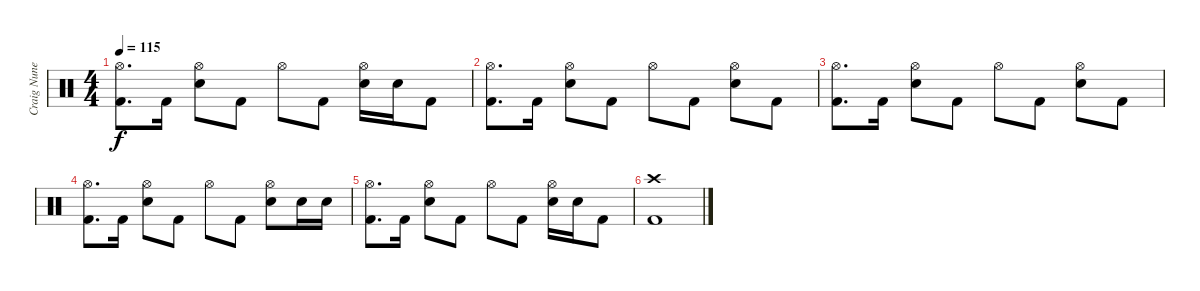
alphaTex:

\track ("Craig Nunenmacher" "Craig Nune") {instrument percussion}
\staff {score}
\articulation defaults
\ts (4 4)
\tempo 115
\clef neutral
\ks c
("Hi-Hat (open)" "Kick (hit) 2").8{d dy f} "Kick (hit) 2".16 ("Hi-Hat (open)" "Snare (hit) 2").8 "Kick (hit) 2".8 "Hi-Hat (open)".8 "Kick (hit) 2".8 ("Hi-Hat (open)" "Snare (hit) 2").16 "Snare (hit) 2".16 "Kick (hit) 2".8 |
("Hi-Hat (open)" "Kick (hit) 2").8{d} "Kick (hit) 2".16 ("Hi-Hat (open)" "Snare (hit) 2").8 "Kick (hit) 2".8 "Hi-Hat (open)".8 "Kick (hit) 2".8 ("Hi-Hat (open)" "Snare (hit) 2").8 "Kick (hit) 2".8 |
("Hi-Hat (open)" "Kick (hit) 2").8{d} "Kick (hit) 2".16 ("Hi-Hat (open)" "Snare (hit) 2").8 "Kick (hit) 2".8 "Hi-Hat (open)".8 "Kick (hit) 2".8 ("Hi-Hat (open)" "Snare (hit) 2").8 "Kick (hit) 2".8 |
("Hi-Hat (open)" "Kick (hit) 2").8{d} "Kick (hit) 2".16 ("Hi-Hat (open)" "Snare (hit) 2").8 "Kick (hit) 2".8 "Hi-Hat (open)".8 "Kick (hit) 2".8 ("Hi-Hat (open)" "Snare (hit) 2").8 "Snare (hit) 2".16 "Snare (hit) 2".16 |
("Hi-Hat (open)" "Kick (hit) 2").8{d} "Kick (hit) 2".16 ("Hi-Hat (open)" "Snare (hit) 2").8 "Kick (hit) 2".8 "Hi-Hat (open)".8 "Kick (hit) 2".8 ("Hi-Hat (open)" "Snare (hit) 2").16 "Snare (hit) 2".16 "Kick (hit) 2".8 |
("Crash high (hit)" "Kick (hit) 2").1
